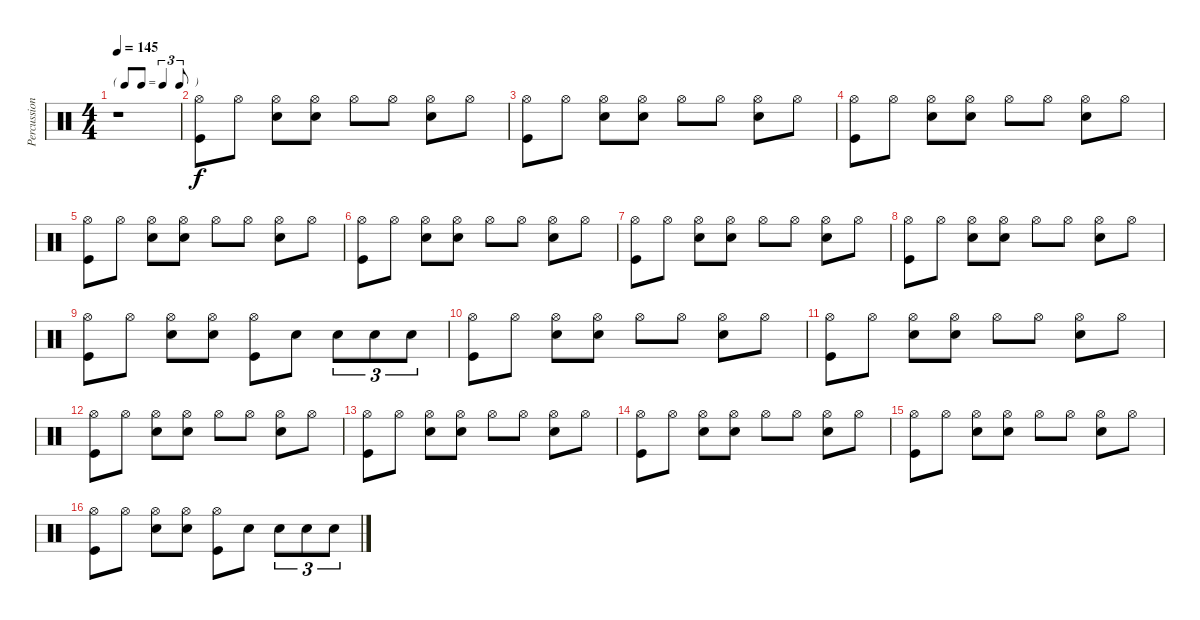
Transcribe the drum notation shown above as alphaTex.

\track ("Percussion" "Percussion") {instrument percussion}
\staff {score}
\articulation defaults
\ts (4 4)
\tf triplet8th
\tempo 145
\clef neutral
\ks c
r.1{dy f} |
("Hi-Hat (open)" "Kick (hit)").8 "Hi-Hat (open)".8 ("Hi-Hat (open)" "Snare (hit) 2").8 ("Hi-Hat (open)" "Snare (hit) 2").8 "Hi-Hat (open)".8 "Hi-Hat (open)".8 ("Hi-Hat (open)" "Snare (hit) 2").8 "Hi-Hat (open)".8 |
("Hi-Hat (open)" "Kick (hit)").8 "Hi-Hat (open)".8 ("Hi-Hat (open)" "Snare (hit) 2").8 ("Hi-Hat (open)" "Snare (hit) 2").8 "Hi-Hat (open)".8 "Hi-Hat (open)".8 ("Hi-Hat (open)" "Snare (hit) 2").8 "Hi-Hat (open)".8 |
("Hi-Hat (open)" "Kick (hit)").8 "Hi-Hat (open)".8 ("Hi-Hat (open)" "Snare (hit) 2").8 ("Hi-Hat (open)" "Snare (hit) 2").8 "Hi-Hat (open)".8 "Hi-Hat (open)".8 ("Hi-Hat (open)" "Snare (hit) 2").8 "Hi-Hat (open)".8 |
("Hi-Hat (open)" "Kick (hit)").8 "Hi-Hat (open)".8 ("Hi-Hat (open)" "Snare (hit) 2").8 ("Hi-Hat (open)" "Snare (hit) 2").8 "Hi-Hat (open)".8 "Hi-Hat (open)".8 ("Hi-Hat (open)" "Snare (hit) 2").8 "Hi-Hat (open)".8 |
("Hi-Hat (open)" "Kick (hit)").8 "Hi-Hat (open)".8 ("Hi-Hat (open)" "Snare (hit) 2").8 ("Hi-Hat (open)" "Snare (hit) 2").8 "Hi-Hat (open)".8 "Hi-Hat (open)".8 ("Hi-Hat (open)" "Snare (hit) 2").8 "Hi-Hat (open)".8 |
("Hi-Hat (open)" "Kick (hit)").8 "Hi-Hat (open)".8 ("Hi-Hat (open)" "Snare (hit) 2").8 ("Hi-Hat (open)" "Snare (hit) 2").8 "Hi-Hat (open)".8 "Hi-Hat (open)".8 ("Hi-Hat (open)" "Snare (hit) 2").8 "Hi-Hat (open)".8 |
("Hi-Hat (open)" "Kick (hit)").8 "Hi-Hat (open)".8 ("Hi-Hat (open)" "Snare (hit) 2").8 ("Hi-Hat (open)" "Snare (hit) 2").8 "Hi-Hat (open)".8 "Hi-Hat (open)".8 ("Hi-Hat (open)" "Snare (hit) 2").8 "Hi-Hat (open)".8 |
("Hi-Hat (open)" "Kick (hit)").8 "Hi-Hat (open)".8 ("Hi-Hat (open)" "Snare (hit) 2").8 ("Hi-Hat (open)" "Snare (hit) 2").8 ("Hi-Hat (open)" "Kick (hit)").8 "Snare (hit) 2".8 "Snare (hit) 2".8{tu (3 2)} "Snare (hit) 2".8{tu (3 2)} "Snare (hit) 2".8{tu (3 2)} |
("Hi-Hat (open)" "Kick (hit)").8 "Hi-Hat (open)".8 ("Hi-Hat (open)" "Snare (hit) 2").8 ("Hi-Hat (open)" "Snare (hit) 2").8 "Hi-Hat (open)".8 "Hi-Hat (open)".8 ("Hi-Hat (open)" "Snare (hit) 2").8 "Hi-Hat (open)".8 |
("Hi-Hat (open)" "Kick (hit)").8 "Hi-Hat (open)".8 ("Hi-Hat (open)" "Snare (hit) 2").8 ("Hi-Hat (open)" "Snare (hit) 2").8 "Hi-Hat (open)".8 "Hi-Hat (open)".8 ("Hi-Hat (open)" "Snare (hit) 2").8 "Hi-Hat (open)".8 |
("Hi-Hat (open)" "Kick (hit)").8 "Hi-Hat (open)".8 ("Hi-Hat (open)" "Snare (hit) 2").8 ("Hi-Hat (open)" "Snare (hit) 2").8 "Hi-Hat (open)".8 "Hi-Hat (open)".8 ("Hi-Hat (open)" "Snare (hit) 2").8 "Hi-Hat (open)".8 |
("Hi-Hat (open)" "Kick (hit)").8 "Hi-Hat (open)".8 ("Hi-Hat (open)" "Snare (hit) 2").8 ("Hi-Hat (open)" "Snare (hit) 2").8 "Hi-Hat (open)".8 "Hi-Hat (open)".8 ("Hi-Hat (open)" "Snare (hit) 2").8 "Hi-Hat (open)".8 |
("Hi-Hat (open)" "Kick (hit)").8 "Hi-Hat (open)".8 ("Hi-Hat (open)" "Snare (hit) 2").8 ("Hi-Hat (open)" "Snare (hit) 2").8 "Hi-Hat (open)".8 "Hi-Hat (open)".8 ("Hi-Hat (open)" "Snare (hit) 2").8 "Hi-Hat (open)".8 |
("Hi-Hat (open)" "Kick (hit)").8 "Hi-Hat (open)".8 ("Hi-Hat (open)" "Snare (hit) 2").8 ("Hi-Hat (open)" "Snare (hit) 2").8 "Hi-Hat (open)".8 "Hi-Hat (open)".8 ("Hi-Hat (open)" "Snare (hit) 2").8 "Hi-Hat (open)".8 |
("Hi-Hat (open)" "Kick (hit)").8 "Hi-Hat (open)".8 ("Hi-Hat (open)" "Snare (hit) 2").8 ("Hi-Hat (open)" "Snare (hit) 2").8 ("Hi-Hat (open)" "Kick (hit)").8 "Snare (hit) 2".8 "Snare (hit) 2".8{tu (3 2)} "Snare (hit) 2".8{tu (3 2)} "Snare (hit) 2".8{tu (3 2)}
